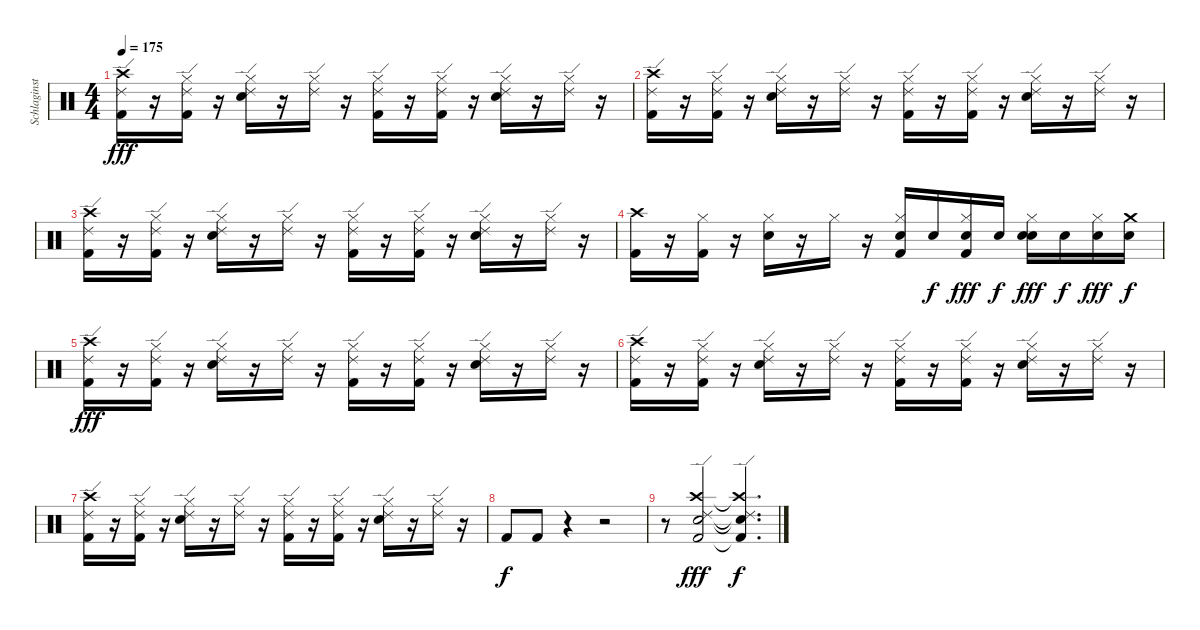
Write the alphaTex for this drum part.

\track ("Schlaginstrumente - Auswahl" "Schlaginst") {instrument percussion}
\staff {score}
\articulation defaults
\ts (4 4)
\tempo 175
\clef neutral
\ks c
("Kick (hit) 2" "Crash high (hit)" "Ride (edge) 2").16{dy fff} r.16 ("Hi-Hat (closed)" "Kick (hit) 2" "Ride (edge) 2").16 r.16 ("Snare (hit) 2" "Hi-Hat (closed)" "Ride (edge) 2").16 r.16 ("Hi-Hat (closed)" "Ride (edge) 2").16 r.16 ("Kick (hit) 2" "Hi-Hat (closed)" "Ride (edge) 2").16 r.16 ("Kick (hit) 2" "Hi-Hat (closed)" "Ride (edge) 2").16 r.16 ("Snare (hit) 2" "Hi-Hat (closed)" "Ride (edge) 2").16 r.16 ("Hi-Hat (closed)" "Ride (edge) 2").16 r.16 |
("Kick (hit) 2" "Crash high (hit)" "Ride (edge) 2").16 r.16 ("Hi-Hat (closed)" "Kick (hit) 2" "Ride (edge) 2").16 r.16 ("Snare (hit) 2" "Hi-Hat (closed)" "Ride (edge) 2").16 r.16 ("Hi-Hat (closed)" "Ride (edge) 2").16 r.16 ("Kick (hit) 2" "Hi-Hat (closed)" "Ride (edge) 2").16 r.16 ("Kick (hit) 2" "Hi-Hat (closed)" "Ride (edge) 2").16 r.16 ("Snare (hit) 2" "Hi-Hat (closed)" "Ride (edge) 2").16 r.16 ("Hi-Hat (closed)" "Ride (edge) 2").16 r.16 |
("Kick (hit) 2" "Crash high (hit)" "Ride (edge) 2").16 r.16 ("Hi-Hat (closed)" "Kick (hit) 2" "Ride (edge) 2").16 r.16 ("Snare (hit) 2" "Hi-Hat (closed)" "Ride (edge) 2").16 r.16 ("Hi-Hat (closed)" "Ride (edge) 2").16 r.16 ("Kick (hit) 2" "Hi-Hat (closed)" "Ride (edge) 2").16 r.16 ("Kick (hit) 2" "Hi-Hat (closed)" "Ride (edge) 2").16 r.16 ("Snare (hit) 2" "Hi-Hat (closed)" "Ride (edge) 2").16 r.16 ("Hi-Hat (closed)" "Ride (edge) 2").16 r.16 |
("Kick (hit) 2" "Crash high (hit)").16 r.16 ("Hi-Hat (closed)" "Kick (hit) 2").16 r.16 ("Snare (hit) 2" "Hi-Hat (closed)").16 r.16 "Hi-Hat (closed)".16 r.16 ("Kick (hit) 2" "Hi-Hat (closed)" "Snare (hit) 2").16 "Snare (hit) 2".16{dy f} ("Kick (hit) 2" "Hi-Hat (closed)" "Snare (hit) 2").16{dy fff} "Snare (hit) 2".16{dy f} ("Snare (hit) 2" "Hi-Hat (closed)" "Snare (hit) 2").16{dy fff} "Snare (hit) 2".16{dy f} ("Hi-Hat (closed)" "Snare (hit) 2").16{dy fff} ("Crash medium (hit)" "Snare (hit) 2").16{dy f} |
("Kick (hit) 2" "Crash high (hit)" "Ride (edge) 2").16{dy fff} r.16 ("Hi-Hat (closed)" "Kick (hit) 2" "Ride (edge) 2").16 r.16 ("Snare (hit) 2" "Hi-Hat (closed)" "Ride (edge) 2").16 r.16 ("Hi-Hat (closed)" "Ride (edge) 2").16 r.16 ("Kick (hit) 2" "Hi-Hat (closed)" "Ride (edge) 2").16 r.16 ("Kick (hit) 2" "Hi-Hat (closed)" "Ride (edge) 2").16 r.16 ("Snare (hit) 2" "Hi-Hat (closed)" "Ride (edge) 2").16 r.16 ("Hi-Hat (closed)" "Ride (edge) 2").16 r.16 |
("Kick (hit) 2" "Crash high (hit)" "Ride (edge) 2").16 r.16 ("Hi-Hat (closed)" "Kick (hit) 2" "Ride (edge) 2").16 r.16 ("Snare (hit) 2" "Hi-Hat (closed)" "Ride (edge) 2").16 r.16 ("Hi-Hat (closed)" "Ride (edge) 2").16 r.16 ("Kick (hit) 2" "Hi-Hat (closed)" "Ride (edge) 2").16 r.16 ("Kick (hit) 2" "Hi-Hat (closed)" "Ride (edge) 2").16 r.16 ("Snare (hit) 2" "Hi-Hat (closed)" "Ride (edge) 2").16 r.16 ("Hi-Hat (closed)" "Ride (edge) 2").16 r.16 |
("Kick (hit) 2" "Crash high (hit)" "Ride (edge) 2").16 r.16 ("Hi-Hat (closed)" "Kick (hit) 2" "Ride (edge) 2").16 r.16 ("Snare (hit) 2" "Hi-Hat (closed)" "Ride (edge) 2").16 r.16 ("Hi-Hat (closed)" "Ride (edge) 2").16 r.16 ("Kick (hit) 2" "Hi-Hat (closed)" "Ride (edge) 2").16 r.16 ("Kick (hit) 2" "Hi-Hat (closed)" "Ride (edge) 2").16 r.16 ("Snare (hit) 2" "Hi-Hat (closed)" "Ride (edge) 2").16 r.16 ("Hi-Hat (closed)" "Ride (edge) 2").16 r.16 |
"Kick (hit) 2".8{dy f} "Kick (hit) 2".8 r.4 r.2 |
r.8 ("Kick (hit) 2" "Crash high (hit)" "Ride (edge) 2" "Snare (hit) 2").2{dy fff} ("Kick (hit) 2"{t} "Crash high (hit)"{t} "Ride (edge) 2"{t} "Snare (hit) 2"{t}).4{d dy f}
